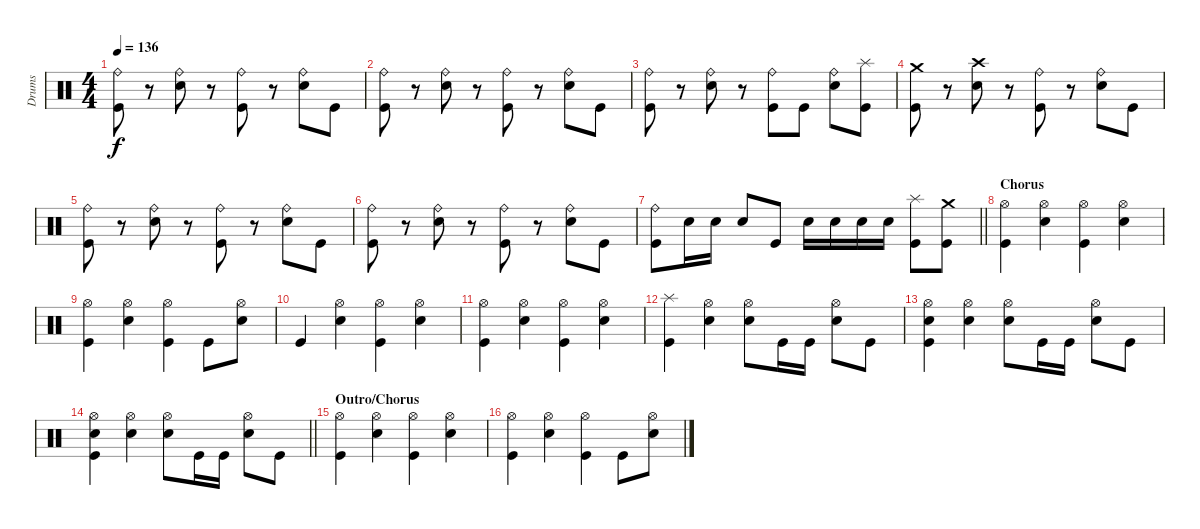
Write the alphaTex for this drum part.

\track ("Drums" "Drums") {instrument percussion}
\staff {score}
\articulation defaults
\ts (4 4)
\tempo 136
\clef neutral
\ks c
("Kick (hit)" "Ride (bell)").8{dy f} r.8 ("Electric Snare (hit)" "Ride (bell)").8 r.8 ("Kick (hit)" "Ride (bell)").8 r.8 ("Electric Snare (hit)" "Ride (bell)").8 "Kick (hit)".8 |
("Kick (hit)" "Ride (bell)").8 r.8 ("Electric Snare (hit)" "Ride (bell)").8 r.8 ("Kick (hit)" "Ride (bell)").8 r.8 ("Electric Snare (hit)" "Ride (bell)").8 "Kick (hit)".8 |
("Kick (hit)" "Ride (bell)").8 r.8 ("Electric Snare (hit)" "Ride (bell)").8 r.8 ("Kick (hit)" "Ride (bell)").8 "Kick (hit)".8 ("Electric Snare (hit)" "Ride (bell)").8 ("Kick (hit)" "Splash (hit)").8 |
("Kick (hit)" "Crash medium (hit)").8 r.8 ("Electric Snare (hit)" "Crash high (hit)").8 r.8 ("Kick (hit)" "Ride (bell)").8 r.8 ("Electric Snare (hit)" "Ride (bell)").8 "Kick (hit)".8 |
("Kick (hit)" "Ride (bell)").8 r.8 ("Electric Snare (hit)" "Ride (bell)").8 r.8 ("Kick (hit)" "Ride (bell)").8 r.8 ("Electric Snare (hit)" "Ride (bell)").8 "Kick (hit)".8 |
("Kick (hit)" "Ride (bell)").8 r.8 ("Electric Snare (hit)" "Ride (bell)").8 r.8 ("Kick (hit)" "Ride (bell)").8 r.8 ("Electric Snare (hit)" "Ride (bell)").8 "Kick (hit)".8 |
\barLineRight lightlight
("Kick (hit)" "Ride (bell)").8 "Electric Snare (hit)".16 "Electric Snare (hit)".16 "Electric Snare (hit)".8 "Kick (hit)".8 "Electric Snare (hit)".16 "Electric Snare (hit)".16 "Electric Snare (hit)".16 "Electric Snare (hit)".16 ("Kick (hit)" "Splash (hit)").8 ("Kick (hit)" "Crash medium (hit)").8 |
\section ("" "Chorus")
("Kick (hit)" "Hi-Hat (open)").4 ("Electric Snare (hit)" "Hi-Hat (open)").4 ("Kick (hit)" "Hi-Hat (open)").4 ("Electric Snare (hit)" "Hi-Hat (open)").4 |
("Kick (hit)" "Hi-Hat (open)").4 ("Electric Snare (hit)" "Hi-Hat (open)").4 ("Kick (hit)" "Hi-Hat (open)").4 "Kick (hit)".8 ("Electric Snare (hit)" "Hi-Hat (open)").8 |
"Kick (hit)".4 ("Electric Snare (hit)" "Hi-Hat (open)").4 ("Kick (hit)" "Hi-Hat (open)").4 ("Electric Snare (hit)" "Hi-Hat (open)").4 |
("Kick (hit)" "Hi-Hat (open)").4 ("Electric Snare (hit)" "Hi-Hat (open)").4 ("Kick (hit)" "Hi-Hat (open)").4 ("Electric Snare (hit)" "Hi-Hat (open)").4 |
("Kick (hit)" "Splash (hit)").4 ("Electric Snare (hit)" "Hi-Hat (open)").4 ("Electric Snare (hit)" "Hi-Hat (open)").8 "Kick (hit)".16 "Kick (hit)".16 ("Electric Snare (hit)" "Hi-Hat (open)").8 "Kick (hit)".8 |
("Kick (hit)" "Electric Snare (hit)" "Hi-Hat (open)").4 ("Electric Snare (hit)" "Hi-Hat (open)").4 ("Electric Snare (hit)" "Hi-Hat (open)").8 "Kick (hit)".16 "Kick (hit)".16 ("Electric Snare (hit)" "Hi-Hat (open)").8 "Kick (hit)".8 |
\barLineRight lightlight
("Kick (hit)" "Electric Snare (hit)" "Hi-Hat (open)").4 ("Electric Snare (hit)" "Hi-Hat (open)").4 ("Electric Snare (hit)" "Hi-Hat (open)").8 "Kick (hit)".16 "Kick (hit)".16 ("Electric Snare (hit)" "Hi-Hat (open)").8 "Kick (hit)".8 |
\section ("" "Outro/Chorus")
("Kick (hit)" "Hi-Hat (open)").4 ("Electric Snare (hit)" "Hi-Hat (open)").4 ("Kick (hit)" "Hi-Hat (open)").4 ("Electric Snare (hit)" "Hi-Hat (open)").4 |
("Kick (hit)" "Hi-Hat (open)").4 ("Electric Snare (hit)" "Hi-Hat (open)").4 ("Kick (hit)" "Hi-Hat (open)").4 "Kick (hit)".8 ("Electric Snare (hit)" "Hi-Hat (open)").8
